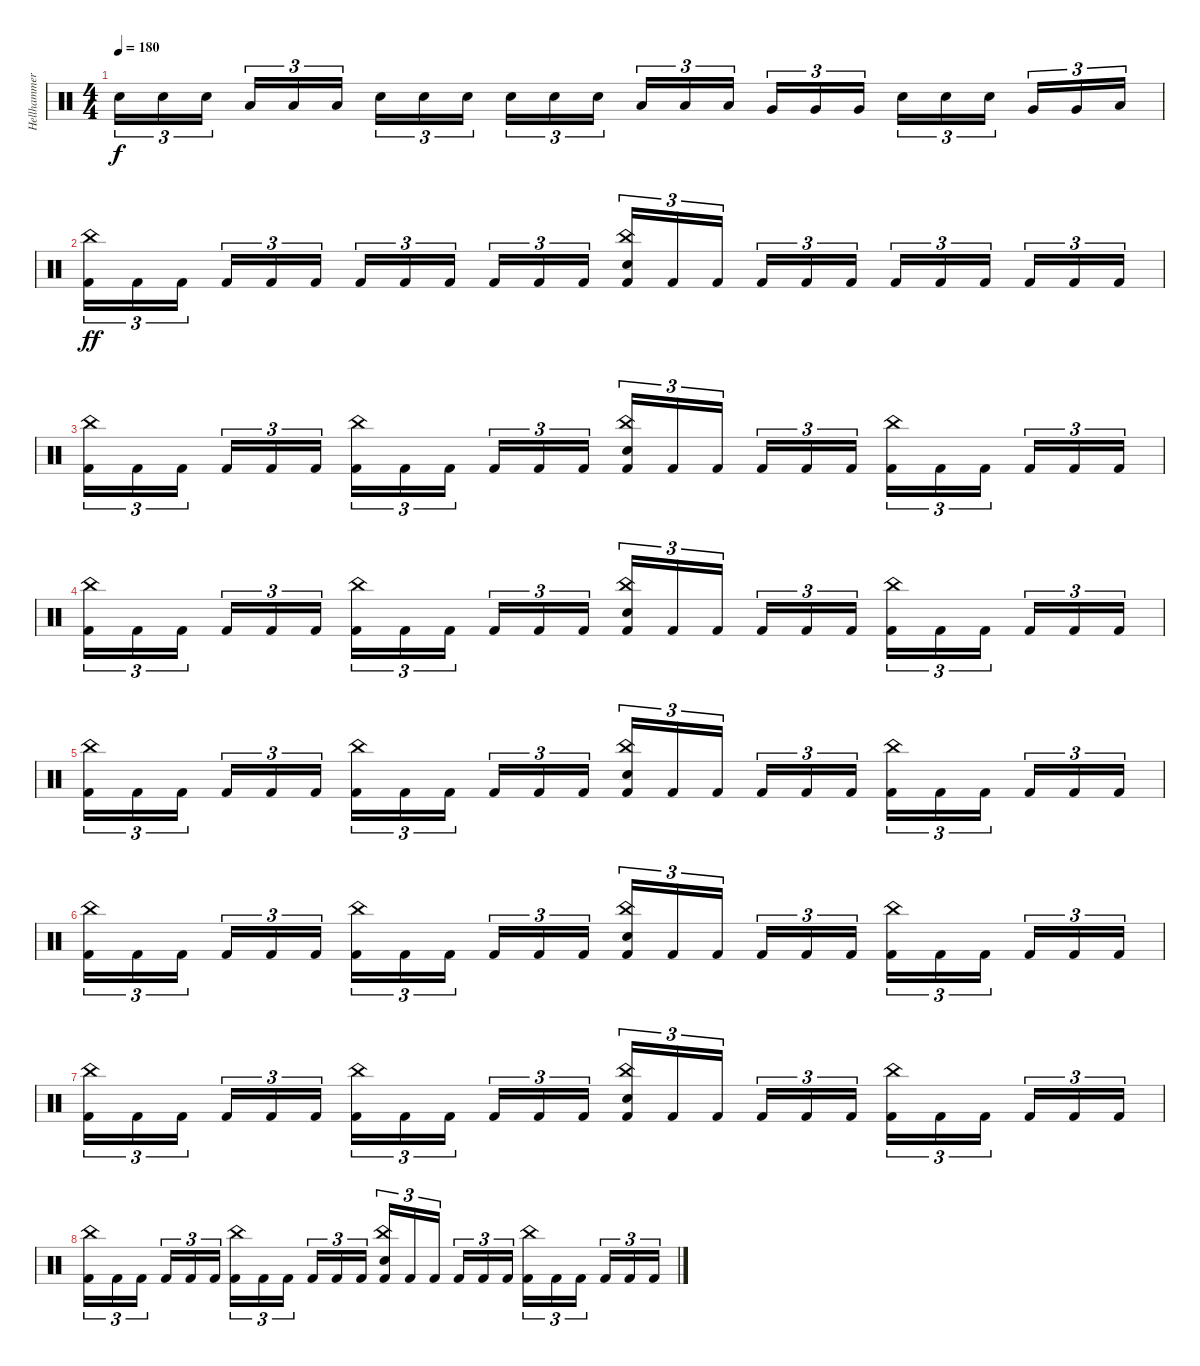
\track ("Hellhammer" "Hellhammer") {instrument percussion}
\staff {score}
\articulation defaults
\ts (4 4)
\tempo 180
\clef neutral
\ks c "Electric Snare (hit)".16{tu (3 2) dy f} "Electric Snare (hit)".16{tu (3 2)} "Electric Snare (hit)".16{tu (3 2) beam splitsecondary} "Low Tom (hit)".16{tu (3 2)} "Low Tom (hit)".16{tu (3 2)} "Low Tom (hit)".16{tu (3 2)} "Electric Snare (hit)".16{tu (3 2)} "Electric Snare (hit)".16{tu (3 2)} "Electric Snare (hit)".16{tu (3 2) beam splitsecondary} "Electric Snare (hit)".16{tu (3 2)} "Electric Snare (hit)".16{tu (3 2)} "Electric Snare (hit)".16{tu (3 2)} "Low Tom (hit)".16{tu (3 2)} "Low Tom (hit)".16{tu (3 2)} "Low Tom (hit)".16{tu (3 2) beam splitsecondary} "Very Low Tom (hit)".16{tu (3 2)} "Very Low Tom (hit)".16{tu (3 2)} "Very Low Tom (hit)".16{tu (3 2)} "Electric Snare (hit)".16{tu (3 2)} "Electric Snare (hit)".16{tu (3 2)} "Electric Snare (hit)".16{tu (3 2) beam splitsecondary} "Very Low Tom (hit)".16{tu (3 2)} "Very Low Tom (hit)".16{tu (3 2)} "Low Floor Tom (hit)".16{tu (3 2)}
|
("China (hit)" "Kick (hit) 2").16{tu (3 2) dy ff} "Kick (hit) 2".16{tu (3 2)} "Kick (hit) 2".16{tu (3 2) beam splitsecondary} "Kick (hit) 2".16{tu (3 2)} "Kick (hit) 2".16{tu (3 2)} "Kick (hit) 2".16{tu (3 2)} "Kick (hit) 2".16{tu (3 2)} "Kick (hit) 2".16{tu (3 2)} "Kick (hit) 2".16{tu (3 2) beam splitsecondary} "Kick (hit) 2".16{tu (3 2)} "Kick (hit) 2".16{tu (3 2)} "Kick (hit) 2".16{tu (3 2)} ("China (hit)" "Electric Snare (hit)" "Kick (hit) 2").16{tu (3 2)} "Kick (hit) 2".16{tu (3 2)} "Kick (hit) 2".16{tu (3 2) beam splitsecondary} "Kick (hit) 2".16{tu (3 2)} "Kick (hit) 2".16{tu (3 2)} "Kick (hit) 2".16{tu (3 2)} "Kick (hit) 2".16{tu (3 2)} "Kick (hit) 2".16{tu (3 2)} "Kick (hit) 2".16{tu (3 2) beam splitsecondary} "Kick (hit) 2".16{tu (3 2)} "Kick (hit) 2".16{tu (3 2)} "Kick (hit) 2".16{tu (3 2)} |
("China (hit)" "Kick (hit) 2").16{tu (3 2)} "Kick (hit) 2".16{tu (3 2)} "Kick (hit) 2".16{tu (3 2) beam splitsecondary} "Kick (hit) 2".16{tu (3 2)} "Kick (hit) 2".16{tu (3 2)} "Kick (hit) 2".16{tu (3 2)} ("China (hit)" "Kick (hit) 2").16{tu (3 2)} "Kick (hit) 2".16{tu (3 2)} "Kick (hit) 2".16{tu (3 2) beam splitsecondary} "Kick (hit) 2".16{tu (3 2)} "Kick (hit) 2".16{tu (3 2)} "Kick (hit) 2".16{tu (3 2)} ("China (hit)" "Electric Snare (hit)" "Kick (hit) 2").16{tu (3 2)} "Kick (hit) 2".16{tu (3 2)} "Kick (hit) 2".16{tu (3 2) beam splitsecondary} "Kick (hit) 2".16{tu (3 2)} "Kick (hit) 2".16{tu (3 2)} "Kick (hit) 2".16{tu (3 2)} ("China (hit)" "Kick (hit) 2").16{tu (3 2)} "Kick (hit) 2".16{tu (3 2)} "Kick (hit) 2".16{tu (3 2) beam splitsecondary} "Kick (hit) 2".16{tu (3 2)} "Kick (hit) 2".16{tu (3 2)} "Kick (hit) 2".16{tu (3 2)} |
("China (hit)" "Kick (hit) 2").16{tu (3 2)} "Kick (hit) 2".16{tu (3 2)} "Kick (hit) 2".16{tu (3 2) beam splitsecondary} "Kick (hit) 2".16{tu (3 2)} "Kick (hit) 2".16{tu (3 2)} "Kick (hit) 2".16{tu (3 2)} ("China (hit)" "Kick (hit) 2").16{tu (3 2)} "Kick (hit) 2".16{tu (3 2)} "Kick (hit) 2".16{tu (3 2) beam splitsecondary} "Kick (hit) 2".16{tu (3 2)} "Kick (hit) 2".16{tu (3 2)} "Kick (hit) 2".16{tu (3 2)} ("China (hit)" "Electric Snare (hit)" "Kick (hit) 2").16{tu (3 2)} "Kick (hit) 2".16{tu (3 2)} "Kick (hit) 2".16{tu (3 2) beam splitsecondary} "Kick (hit) 2".16{tu (3 2)} "Kick (hit) 2".16{tu (3 2)} "Kick (hit) 2".16{tu (3 2)} ("China (hit)" "Kick (hit) 2").16{tu (3 2)} "Kick (hit) 2".16{tu (3 2)} "Kick (hit) 2".16{tu (3 2) beam splitsecondary} "Kick (hit) 2".16{tu (3 2)} "Kick (hit) 2".16{tu (3 2)} "Kick (hit) 2".16{tu (3 2)} |
("China (hit)" "Kick (hit) 2").16{tu (3 2)} "Kick (hit) 2".16{tu (3 2)} "Kick (hit) 2".16{tu (3 2) beam splitsecondary} "Kick (hit) 2".16{tu (3 2)} "Kick (hit) 2".16{tu (3 2)} "Kick (hit) 2".16{tu (3 2)} ("China (hit)" "Kick (hit) 2").16{tu (3 2)} "Kick (hit) 2".16{tu (3 2)} "Kick (hit) 2".16{tu (3 2) beam splitsecondary} "Kick (hit) 2".16{tu (3 2)} "Kick (hit) 2".16{tu (3 2)} "Kick (hit) 2".16{tu (3 2)} ("China (hit)" "Electric Snare (hit)" "Kick (hit) 2").16{tu (3 2)} "Kick (hit) 2".16{tu (3 2)} "Kick (hit) 2".16{tu (3 2) beam splitsecondary} "Kick (hit) 2".16{tu (3 2)} "Kick (hit) 2".16{tu (3 2)} "Kick (hit) 2".16{tu (3 2)} ("China (hit)" "Kick (hit) 2").16{tu (3 2)} "Kick (hit) 2".16{tu (3 2)} "Kick (hit) 2".16{tu (3 2) beam splitsecondary} "Kick (hit) 2".16{tu (3 2)} "Kick (hit) 2".16{tu (3 2)} "Kick (hit) 2".16{tu (3 2)} |
("China (hit)" "Kick (hit) 2").16{tu (3 2)} "Kick (hit) 2".16{tu (3 2)} "Kick (hit) 2".16{tu (3 2) beam splitsecondary} "Kick (hit) 2".16{tu (3 2)} "Kick (hit) 2".16{tu (3 2)} "Kick (hit) 2".16{tu (3 2)} ("China (hit)" "Kick (hit) 2").16{tu (3 2)} "Kick (hit) 2".16{tu (3 2)} "Kick (hit) 2".16{tu (3 2) beam splitsecondary} "Kick (hit) 2".16{tu (3 2)} "Kick (hit) 2".16{tu (3 2)} "Kick (hit) 2".16{tu (3 2)} ("China (hit)" "Electric Snare (hit)" "Kick (hit) 2").16{tu (3 2)} "Kick (hit) 2".16{tu (3 2)} "Kick (hit) 2".16{tu (3 2) beam splitsecondary} "Kick (hit) 2".16{tu (3 2)} "Kick (hit) 2".16{tu (3 2)} "Kick (hit) 2".16{tu (3 2)} ("China (hit)" "Kick (hit) 2").16{tu (3 2)} "Kick (hit) 2".16{tu (3 2)} "Kick (hit) 2".16{tu (3 2) beam splitsecondary} "Kick (hit) 2".16{tu (3 2)} "Kick (hit) 2".16{tu (3 2)} "Kick (hit) 2".16{tu (3 2)} |
("China (hit)" "Kick (hit) 2").16{tu (3 2)} "Kick (hit) 2".16{tu (3 2)} "Kick (hit) 2".16{tu (3 2) beam splitsecondary} "Kick (hit) 2".16{tu (3 2)} "Kick (hit) 2".16{tu (3 2)} "Kick (hit) 2".16{tu (3 2)} ("China (hit)" "Kick (hit) 2").16{tu (3 2)} "Kick (hit) 2".16{tu (3 2)} "Kick (hit) 2".16{tu (3 2) beam splitsecondary} "Kick (hit) 2".16{tu (3 2)} "Kick (hit) 2".16{tu (3 2)} "Kick (hit) 2".16{tu (3 2)} ("China (hit)" "Electric Snare (hit)" "Kick (hit) 2").16{tu (3 2)} "Kick (hit) 2".16{tu (3 2)} "Kick (hit) 2".16{tu (3 2) beam splitsecondary} "Kick (hit) 2".16{tu (3 2)} "Kick (hit) 2".16{tu (3 2)} "Kick (hit) 2".16{tu (3 2)} ("China (hit)" "Kick (hit) 2").16{tu (3 2)} "Kick (hit) 2".16{tu (3 2)} "Kick (hit) 2".16{tu (3 2) beam splitsecondary} "Kick (hit) 2".16{tu (3 2)} "Kick (hit) 2".16{tu (3 2)} "Kick (hit) 2".16{tu (3 2)} |
("China (hit)" "Kick (hit) 2").16{tu (3 2)} "Kick (hit) 2".16{tu (3 2)} "Kick (hit) 2".16{tu (3 2) beam splitsecondary} "Kick (hit) 2".16{tu (3 2)} "Kick (hit) 2".16{tu (3 2)} "Kick (hit) 2".16{tu (3 2)} ("China (hit)" "Kick (hit) 2").16{tu (3 2)} "Kick (hit) 2".16{tu (3 2)} "Kick (hit) 2".16{tu (3 2) beam splitsecondary} "Kick (hit) 2".16{tu (3 2)} "Kick (hit) 2".16{tu (3 2)} "Kick (hit) 2".16{tu (3 2)} ("China (hit)" "Electric Snare (hit)" "Kick (hit) 2").16{tu (3 2)} "Kick (hit) 2".16{tu (3 2)} "Kick (hit) 2".16{tu (3 2) beam splitsecondary} "Kick (hit) 2".16{tu (3 2)} "Kick (hit) 2".16{tu (3 2)} "Kick (hit) 2".16{tu (3 2)} ("China (hit)" "Kick (hit) 2").16{tu (3 2)} "Kick (hit) 2".16{tu (3 2)} "Kick (hit) 2".16{tu (3 2) beam splitsecondary} "Kick (hit) 2".16{tu (3 2)} "Kick (hit) 2".16{tu (3 2)} "Kick (hit) 2".16{tu (3 2)}
